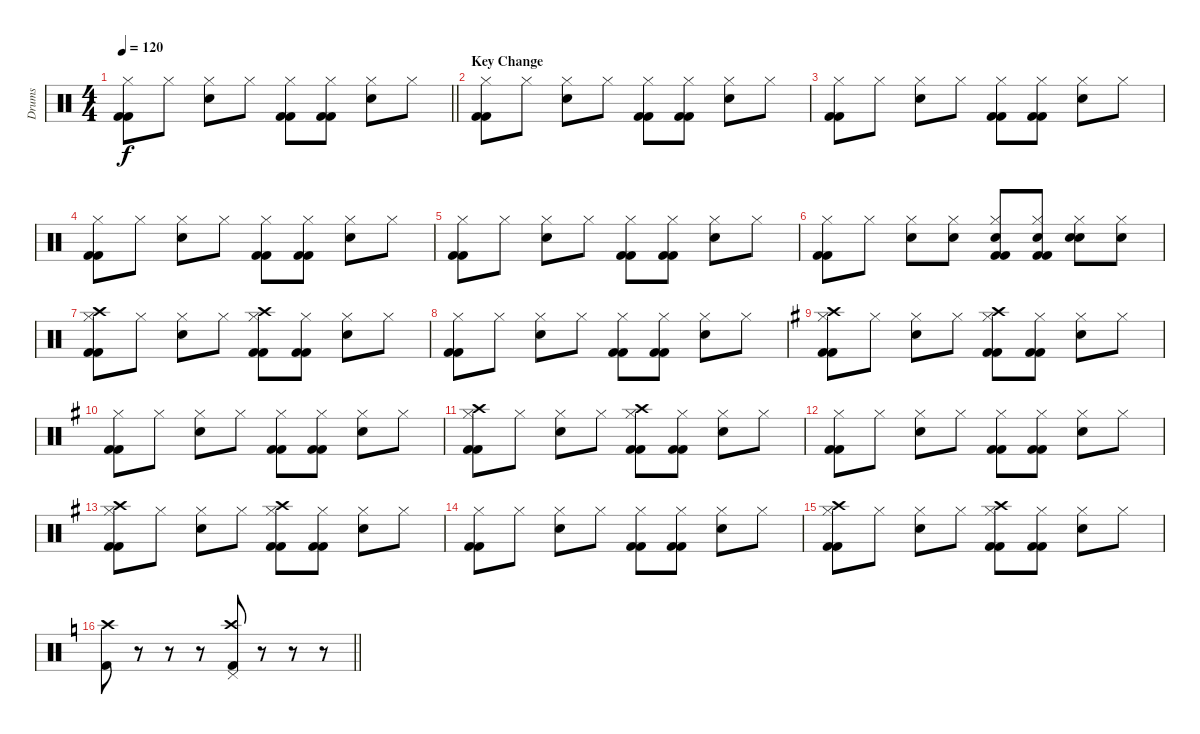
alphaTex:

\track ("Drums" "Drums") {instrument percussion}
\staff {score}
\articulation defaults
\ts (4 4)
\tempo 120
\clef neutral
\barLineRight lightlight
\ks c
("Kick (hit) 2" "Hi-Hat (closed)" "Kick (hit) 2").8{dy f} "Hi-Hat (closed)".8 ("Snare (hit) 2" "Hi-Hat (closed)").8 "Hi-Hat (closed)".8 ("Kick (hit) 2" "Hi-Hat (closed)" "Kick (hit) 2").8 ("Kick (hit) 2" "Hi-Hat (closed)" "Kick (hit) 2").8 ("Snare (hit) 2" "Hi-Hat (closed)").8 "Hi-Hat (closed)".8 |
\section ("" "Key Change")
("Kick (hit) 2" "Hi-Hat (closed)" "Kick (hit) 2").8 "Hi-Hat (closed)".8 ("Snare (hit) 2" "Hi-Hat (closed)").8 "Hi-Hat (closed)".8 ("Kick (hit) 2" "Hi-Hat (closed)" "Kick (hit) 2").8 ("Kick (hit) 2" "Hi-Hat (closed)" "Kick (hit) 2").8 ("Snare (hit) 2" "Hi-Hat (closed)").8 "Hi-Hat (closed)".8 |
("Kick (hit) 2" "Hi-Hat (closed)" "Kick (hit) 2").8 "Hi-Hat (closed)".8 ("Snare (hit) 2" "Hi-Hat (closed)").8 "Hi-Hat (closed)".8 ("Kick (hit) 2" "Hi-Hat (closed)" "Kick (hit) 2").8 ("Kick (hit) 2" "Hi-Hat (closed)" "Kick (hit) 2").8 ("Snare (hit) 2" "Hi-Hat (closed)").8 "Hi-Hat (closed)".8 |
("Kick (hit) 2" "Hi-Hat (closed)" "Kick (hit) 2").8 "Hi-Hat (closed)".8 ("Snare (hit) 2" "Hi-Hat (closed)").8 "Hi-Hat (closed)".8 ("Kick (hit) 2" "Hi-Hat (closed)" "Kick (hit) 2").8 ("Kick (hit) 2" "Hi-Hat (closed)" "Kick (hit) 2").8 ("Snare (hit) 2" "Hi-Hat (closed)").8 "Hi-Hat (closed)".8 |
("Kick (hit) 2" "Hi-Hat (closed)" "Kick (hit) 2").8 "Hi-Hat (closed)".8 ("Snare (hit) 2" "Hi-Hat (closed)").8 "Hi-Hat (closed)".8 ("Kick (hit) 2" "Hi-Hat (closed)" "Kick (hit) 2").8 ("Kick (hit) 2" "Hi-Hat (closed)" "Kick (hit) 2").8 ("Snare (hit) 2" "Hi-Hat (closed)").8 "Hi-Hat (closed)".8 |
("Kick (hit) 2" "Hi-Hat (closed)" "Kick (hit) 2").8 "Hi-Hat (closed)".8 ("Snare (hit) 2" "Hi-Hat (closed)").8 ("Hi-Hat (closed)" "Snare (hit) 2").8 ("Kick (hit) 2" "Hi-Hat (closed)" "Kick (hit) 2" "Snare (hit) 2").8 ("Kick (hit) 2" "Hi-Hat (closed)" "Kick (hit) 2" "Snare (hit) 2").8 ("Snare (hit) 2" "Hi-Hat (closed)" "Snare (hit) 2").8 ("Hi-Hat (closed)" "Snare (hit) 2").8 |
("Kick (hit) 2" "Hi-Hat (closed)" "Kick (hit) 2" "Crash high (hit)").8 "Hi-Hat (closed)".8 ("Snare (hit) 2" "Hi-Hat (closed)").8 "Hi-Hat (closed)".8 ("Kick (hit) 2" "Hi-Hat (closed)" "Kick (hit) 2" "Crash high (hit)").8 ("Kick (hit) 2" "Hi-Hat (closed)" "Kick (hit) 2").8 ("Snare (hit) 2" "Hi-Hat (closed)").8 "Hi-Hat (closed)".8 |
("Kick (hit) 2" "Hi-Hat (closed)" "Kick (hit) 2").8 "Hi-Hat (closed)".8 ("Snare (hit) 2" "Hi-Hat (closed)").8 "Hi-Hat (closed)".8 ("Kick (hit) 2" "Hi-Hat (closed)" "Kick (hit) 2").8 ("Kick (hit) 2" "Hi-Hat (closed)" "Kick (hit) 2").8 ("Snare (hit) 2" "Hi-Hat (closed)").8 "Hi-Hat (closed)".8 |
\ks g
("Kick (hit) 2" "Hi-Hat (closed)" "Kick (hit) 2" "Crash high (hit)").8 "Hi-Hat (closed)".8 ("Snare (hit) 2" "Hi-Hat (closed)").8 "Hi-Hat (closed)".8 ("Kick (hit) 2" "Hi-Hat (closed)" "Kick (hit) 2" "Crash high (hit)").8 ("Kick (hit) 2" "Hi-Hat (closed)" "Kick (hit) 2").8 ("Snare (hit) 2" "Hi-Hat (closed)").8 "Hi-Hat (closed)".8 |
("Kick (hit) 2" "Hi-Hat (closed)" "Kick (hit) 2").8 "Hi-Hat (closed)".8 ("Snare (hit) 2" "Hi-Hat (closed)").8 "Hi-Hat (closed)".8 ("Kick (hit) 2" "Hi-Hat (closed)" "Kick (hit) 2").8 ("Kick (hit) 2" "Hi-Hat (closed)" "Kick (hit) 2").8 ("Snare (hit) 2" "Hi-Hat (closed)").8 "Hi-Hat (closed)".8 |
("Kick (hit) 2" "Hi-Hat (closed)" "Kick (hit) 2" "Crash high (hit)").8 "Hi-Hat (closed)".8 ("Snare (hit) 2" "Hi-Hat (closed)").8 "Hi-Hat (closed)".8 ("Kick (hit) 2" "Hi-Hat (closed)" "Kick (hit) 2" "Crash high (hit)").8 ("Kick (hit) 2" "Hi-Hat (closed)" "Kick (hit) 2").8 ("Snare (hit) 2" "Hi-Hat (closed)").8 "Hi-Hat (closed)".8 |
("Kick (hit) 2" "Hi-Hat (closed)" "Kick (hit) 2").8 "Hi-Hat (closed)".8 ("Snare (hit) 2" "Hi-Hat (closed)").8 "Hi-Hat (closed)".8 ("Kick (hit) 2" "Hi-Hat (closed)" "Kick (hit) 2").8 ("Kick (hit) 2" "Hi-Hat (closed)" "Kick (hit) 2").8 ("Snare (hit) 2" "Hi-Hat (closed)").8 "Hi-Hat (closed)".8 |
("Kick (hit) 2" "Hi-Hat (closed)" "Kick (hit) 2" "Crash high (hit)").8 "Hi-Hat (closed)".8 ("Snare (hit) 2" "Hi-Hat (closed)").8 "Hi-Hat (closed)".8 ("Kick (hit) 2" "Hi-Hat (closed)" "Kick (hit) 2" "Crash high (hit)").8 ("Kick (hit) 2" "Hi-Hat (closed)" "Kick (hit) 2").8 ("Snare (hit) 2" "Hi-Hat (closed)").8 "Hi-Hat (closed)".8 |
("Kick (hit) 2" "Hi-Hat (closed)" "Kick (hit) 2").8 "Hi-Hat (closed)".8 ("Snare (hit) 2" "Hi-Hat (closed)").8 "Hi-Hat (closed)".8 ("Kick (hit) 2" "Hi-Hat (closed)" "Kick (hit) 2").8 ("Kick (hit) 2" "Hi-Hat (closed)" "Kick (hit) 2").8 ("Snare (hit) 2" "Hi-Hat (closed)").8 "Hi-Hat (closed)".8 |
("Kick (hit) 2" "Hi-Hat (closed)" "Kick (hit) 2" "Crash high (hit)").8 "Hi-Hat (closed)".8 ("Snare (hit) 2" "Hi-Hat (closed)").8 "Hi-Hat (closed)".8 ("Kick (hit) 2" "Hi-Hat (closed)" "Kick (hit) 2" "Crash high (hit)").8 ("Kick (hit) 2" "Hi-Hat (closed)" "Kick (hit) 2").8 ("Snare (hit) 2" "Hi-Hat (closed)").8 "Hi-Hat (closed)".8 |
\barLineRight lightlight
\ks c
("Crash high (hit)" "Kick (hit) 2").8 r.8 r.8 r.8 ("Crash high (hit)" "Pedal Hi-Hat (hit)" "Kick (hit) 2").8 r.8 r.8 r.8
